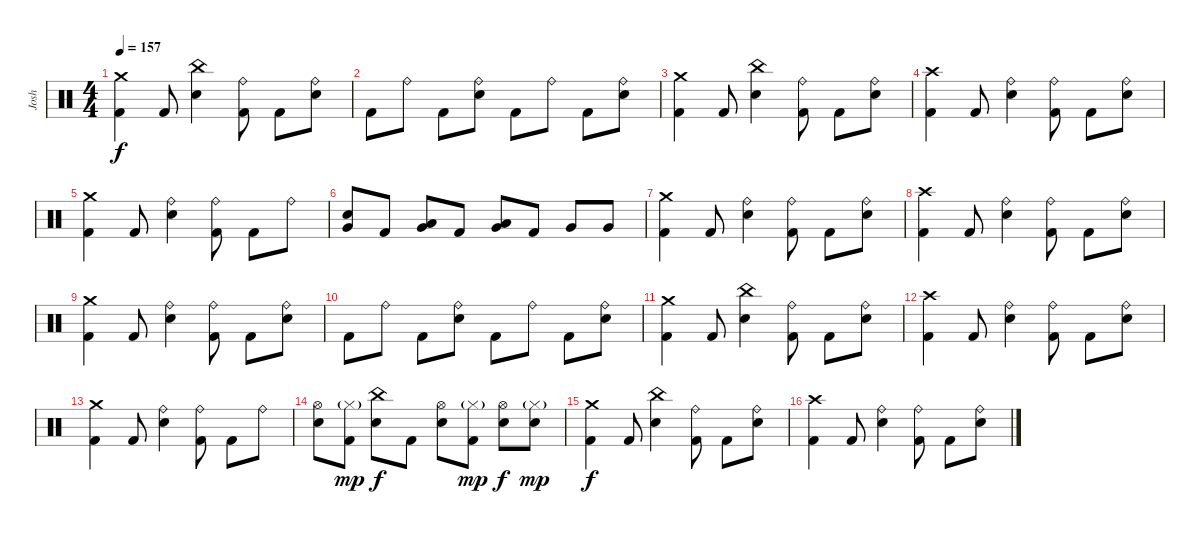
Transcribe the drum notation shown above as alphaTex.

\track ("Josh" "Josh") {instrument percussion}
\staff {score}
\articulation defaults
\ts (4 4)
\tempo 157
\clef neutral
\ks c
("Crash medium (hit)" "Kick (hit) 2").4{dy f} "Kick (hit) 2".8 ("China (hit)" "Electric Snare (hit)").4 ("Ride (bell)" "Kick (hit) 2").8 "Kick (hit) 2".8 ("Ride (bell)" "Electric Snare (hit)").8 |
"Kick (hit) 2".8 "Ride (bell)".8 "Kick (hit) 2".8 ("Ride (bell)" "Electric Snare (hit)").8 "Kick (hit) 2".8 "Ride (bell)".8 "Kick (hit) 2".8 ("Ride (bell)" "Electric Snare (hit)").8 |
("Crash medium (hit)" "Kick (hit) 2").4 "Kick (hit) 2".8 ("China (hit)" "Electric Snare (hit)").4 ("Ride (bell)" "Kick (hit) 2").8 "Kick (hit) 2".8 ("Ride (bell)" "Electric Snare (hit)").8 |
("Crash high (hit)" "Kick (hit) 2").4 "Kick (hit) 2".8 ("Ride (bell)" "Electric Snare (hit)").4 ("Ride (bell)" "Kick (hit) 2").8 "Kick (hit) 2".8 ("Ride (bell)" "Electric Snare (hit)").8 |
("Crash medium (hit)" "Kick (hit) 2").4 "Kick (hit) 2".8 ("Ride (bell)" "Electric Snare (hit)").4 ("Ride (bell)" "Kick (hit) 2").8 "Kick (hit) 2".8 "Ride (bell)".8 |
("Very Low Tom (hit)" "Electric Snare (hit)").8 "Kick (hit) 2".8 ("Low Tom (hit)" "Very Low Tom (hit)").8 "Kick (hit) 2".8 ("Low Tom (hit)" "Very Low Tom (hit)").8 "Kick (hit) 2".8 "Very Low Tom (hit)".8 "Very Low Tom (hit)".8 |
("Crash medium (hit)" "Kick (hit) 2").4 "Kick (hit) 2".8 ("Ride (bell)" "Electric Snare (hit)").4 ("Ride (bell)" "Kick (hit) 2").8 "Kick (hit) 2".8 ("Ride (bell)" "Electric Snare (hit)").8 |
("Crash high (hit)" "Kick (hit) 2").4 "Kick (hit) 2".8 ("Ride (bell)" "Electric Snare (hit)").4 ("Ride (bell)" "Kick (hit) 2").8 "Kick (hit) 2".8 ("Ride (bell)" "Electric Snare (hit)").8 |
("Crash medium (hit)" "Kick (hit) 2").4 "Kick (hit) 2".8 ("Ride (bell)" "Electric Snare (hit)").4 ("Ride (bell)" "Kick (hit) 2").8 "Kick (hit) 2".8 ("Ride (bell)" "Electric Snare (hit)").8 |
"Kick (hit) 2".8 "Ride (bell)".8 "Kick (hit) 2".8 ("Ride (bell)" "Electric Snare (hit)").8 "Kick (hit) 2".8 "Ride (bell)".8 "Kick (hit) 2".8 ("Ride (bell)" "Electric Snare (hit)").8 |
("Crash medium (hit)" "Kick (hit) 2").4 "Kick (hit) 2".8 ("China (hit)" "Electric Snare (hit)").4 ("Ride (bell)" "Kick (hit) 2").8 "Kick (hit) 2".8 ("Ride (bell)" "Electric Snare (hit)").8 |
("Crash high (hit)" "Kick (hit) 2").4 "Kick (hit) 2".8 ("Ride (bell)" "Electric Snare (hit)").4 ("Ride (bell)" "Kick (hit) 2").8 "Kick (hit) 2".8 ("Ride (bell)" "Electric Snare (hit)").8 |
("Crash medium (hit)" "Kick (hit) 2").4 "Kick (hit) 2".8 ("Ride (bell)" "Electric Snare (hit)").4 ("Ride (bell)" "Kick (hit) 2").8 "Kick (hit) 2".8 "Ride (bell)".8 |
("Hi-Hat (open)" "Electric Snare (hit)").8 ("Hi-Hat (closed)"{g} "Kick (hit) 2").8{dy mp} ("China (hit)" "Electric Snare (hit)").8{dy f} "Kick (hit) 2".8 ("Hi-Hat (open)" "Electric Snare (hit)").8 ("Hi-Hat (closed)"{g} "Kick (hit) 2").8{dy mp} ("Hi-Hat (open)" "Electric Snare (hit)").8{dy f} ("Hi-Hat (closed)"{g} "Electric Snare (hit)").8{dy mp} |
("Crash medium (hit)" "Kick (hit) 2").4{dy f} "Kick (hit) 2".8 ("China (hit)" "Electric Snare (hit)").4 ("Ride (bell)" "Kick (hit) 2").8 "Kick (hit) 2".8 ("Ride (bell)" "Electric Snare (hit)").8 |
("Crash high (hit)" "Kick (hit) 2").4 "Kick (hit) 2".8 ("Ride (bell)" "Electric Snare (hit)").4 ("Ride (bell)" "Kick (hit) 2").8 "Kick (hit) 2".8 ("Ride (bell)" "Electric Snare (hit)").8
